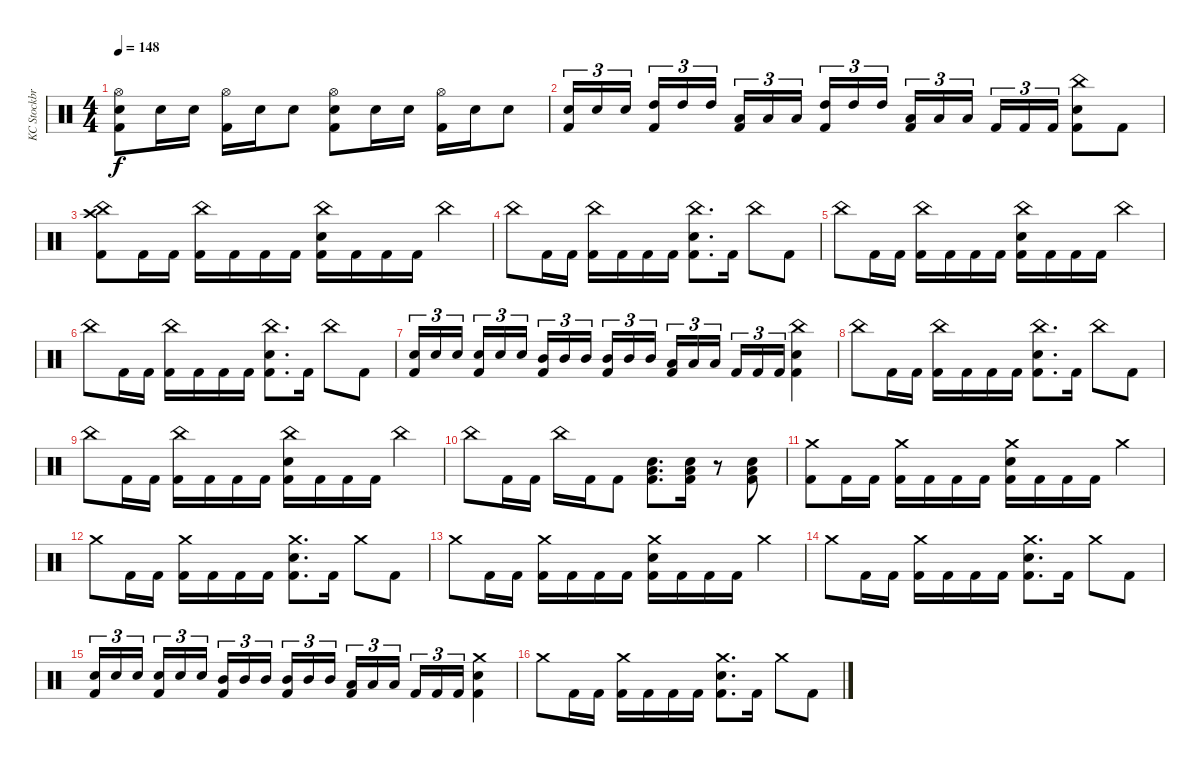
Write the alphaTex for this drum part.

\track ("KC Stockbridge" "KC Stockbr") {instrument percussion}
\staff {score}
\articulation defaults
\ts (4 4)
\tempo 148
\clef neutral
\ks c
("Hi-Hat (open)" "Electric Snare (hit)" "Kick (hit) 2").8{dy f} "Electric Snare (hit)".16 "Electric Snare (hit)".16 ("Hi-Hat (open)" "Kick (hit) 2").16 "Electric Snare (hit)".16 "Electric Snare (hit)".8 ("Hi-Hat (open)" "Electric Snare (hit)" "Kick (hit) 2").8 "Electric Snare (hit)".16 "Electric Snare (hit)".16 ("Hi-Hat (open)" "Kick (hit) 2").16 "Electric Snare (hit)".16 "Electric Snare (hit)".8 |
("Electric Snare (hit)" "Kick (hit) 2").16{tu (3 2)} "Electric Snare (hit)".16{tu (3 2)} "Electric Snare (hit)".16{tu (3 2) beam splitsecondary} ("High Tom (hit)" "Kick (hit) 2").16{tu (3 2)} "High Tom (hit)".16{tu (3 2)} "High Tom (hit)".16{tu (3 2)} ("Low Tom (hit)" "Kick (hit) 2").16{tu (3 2)} "Low Tom (hit)".16{tu (3 2)} "Low Tom (hit)".16{tu (3 2) beam splitsecondary} ("High Tom (hit)" "Kick (hit) 2").16{tu (3 2)} "High Tom (hit)".16{tu (3 2)} "High Tom (hit)".16{tu (3 2)} ("Low Tom (hit)" "Kick (hit) 2").16{tu (3 2)} "Low Tom (hit)".16{tu (3 2)} "Low Tom (hit)".16{tu (3 2) beam splitsecondary} "Kick (hit) 2".16{tu (3 2)} "Kick (hit) 2".16{tu (3 2)} "Kick (hit) 2".16{tu (3 2)} ("China (hit)" "Electric Snare (hit)" "Kick (hit) 2").8 "Kick (hit) 2".8 |
("Crash high (hit)" "China (hit)" "Kick (hit) 2").8 "Kick (hit) 2".16 "Kick (hit) 2".16 ("China (hit)" "Kick (hit) 2").16 "Kick (hit) 2".16 "Kick (hit) 2".16 "Kick (hit) 2".16 ("China (hit)" "Electric Snare (hit)" "Kick (hit) 2").16 "Kick (hit) 2".16 "Kick (hit) 2".16 "Kick (hit) 2".16 "China (hit)".4 |
"China (hit)".8 "Kick (hit) 2".16 "Kick (hit) 2".16 ("China (hit)" "Kick (hit) 2").16 "Kick (hit) 2".16 "Kick (hit) 2".16 "Kick (hit) 2".16 ("China (hit)" "Electric Snare (hit)" "Kick (hit) 2").8{d} "Kick (hit) 2".16 "China (hit)".8 "Kick (hit) 2".8 |
"China (hit)".8 "Kick (hit) 2".16 "Kick (hit) 2".16 ("China (hit)" "Kick (hit) 2").16 "Kick (hit) 2".16 "Kick (hit) 2".16 "Kick (hit) 2".16 ("China (hit)" "Electric Snare (hit)" "Kick (hit) 2").16 "Kick (hit) 2".16 "Kick (hit) 2".16 "Kick (hit) 2".16 "China (hit)".4 |
"China (hit)".8 "Kick (hit) 2".16 "Kick (hit) 2".16 ("China (hit)" "Kick (hit) 2").16 "Kick (hit) 2".16 "Kick (hit) 2".16 "Kick (hit) 2".16 ("China (hit)" "Electric Snare (hit)" "Kick (hit) 2").8{d} "Kick (hit) 2".16 "China (hit)".8 "Kick (hit) 2".8 |
("Electric Snare (hit)" "Kick (hit) 2").16{tu (3 2)} "Electric Snare (hit)".16{tu (3 2)} "Electric Snare (hit)".16{tu (3 2) beam splitsecondary} ("Electric Snare (hit)" "Kick (hit) 2").16{tu (3 2)} "Electric Snare (hit)".16{tu (3 2)} "Electric Snare (hit)".16{tu (3 2)} ("Mid Tom (hit)" "Kick (hit) 2").16{tu (3 2)} "Mid Tom (hit)".16{tu (3 2)} "Mid Tom (hit)".16{tu (3 2) beam splitsecondary} ("Mid Tom (hit)" "Kick (hit) 2").16{tu (3 2)} "Mid Tom (hit)".16{tu (3 2)} "Mid Tom (hit)".16{tu (3 2)} ("Low Tom (hit)" "Kick (hit) 2").16{tu (3 2)} "Low Tom (hit)".16{tu (3 2)} "Low Tom (hit)".16{tu (3 2) beam splitsecondary} "Kick (hit) 2".16{tu (3 2)} "Kick (hit) 2".16{tu (3 2)} "Kick (hit) 2".16{tu (3 2)} ("China (hit)" "Electric Snare (hit)" "Kick (hit) 2").4 |
"China (hit)".8 "Kick (hit) 2".16 "Kick (hit) 2".16 ("China (hit)" "Kick (hit) 2").16 "Kick (hit) 2".16 "Kick (hit) 2".16 "Kick (hit) 2".16 ("China (hit)" "Electric Snare (hit)" "Kick (hit) 2").8{d} "Kick (hit) 2".16 "China (hit)".8 "Kick (hit) 2".8 |
"China (hit)".8 "Kick (hit) 2".16 "Kick (hit) 2".16 ("China (hit)" "Kick (hit) 2").16 "Kick (hit) 2".16 "Kick (hit) 2".16 "Kick (hit) 2".16 ("China (hit)" "Electric Snare (hit)" "Kick (hit) 2").16 "Kick (hit) 2".16 "Kick (hit) 2".16 "Kick (hit) 2".16 "China (hit)".4 |
"China (hit)".8 "Kick (hit) 2".16 "Kick (hit) 2".16 "China (hit)".16 "Kick (hit) 2".16 "Kick (hit) 2".8 ("Low Tom (hit)" "Electric Snare (hit)" "Kick (hit) 2").8{d} ("Low Tom (hit)" "Electric Snare (hit)" "Kick (hit) 2").16 r.8 ("Low Tom (hit)" "Electric Snare (hit)" "Kick (hit) 2").8 |
("Crash medium (hit)" "Kick (hit) 2").8 "Kick (hit) 2".16 "Kick (hit) 2".16 ("Crash medium (hit)" "Kick (hit) 2").16 "Kick (hit) 2".16 "Kick (hit) 2".16 "Kick (hit) 2".16 ("Crash medium (hit)" "Electric Snare (hit)" "Kick (hit) 2").16 "Kick (hit) 2".16 "Kick (hit) 2".16 "Kick (hit) 2".16 "Crash medium (hit)".4 |
"Crash medium (hit)".8 "Kick (hit) 2".16 "Kick (hit) 2".16 ("Crash medium (hit)" "Kick (hit) 2").16 "Kick (hit) 2".16 "Kick (hit) 2".16 "Kick (hit) 2".16 ("Crash medium (hit)" "Electric Snare (hit)" "Kick (hit) 2").8{d} "Kick (hit) 2".16 "Crash medium (hit)".8 "Kick (hit) 2".8 |
"Crash medium (hit)".8 "Kick (hit) 2".16 "Kick (hit) 2".16 ("Crash medium (hit)" "Kick (hit) 2").16 "Kick (hit) 2".16 "Kick (hit) 2".16 "Kick (hit) 2".16 ("Crash medium (hit)" "Electric Snare (hit)" "Kick (hit) 2").16 "Kick (hit) 2".16 "Kick (hit) 2".16 "Kick (hit) 2".16 "Crash medium (hit)".4 |
"Crash medium (hit)".8 "Kick (hit) 2".16 "Kick (hit) 2".16 ("Crash medium (hit)" "Kick (hit) 2").16 "Kick (hit) 2".16 "Kick (hit) 2".16 "Kick (hit) 2".16 ("Crash medium (hit)" "Electric Snare (hit)" "Kick (hit) 2").8{d} "Kick (hit) 2".16 "Crash medium (hit)".8 "Kick (hit) 2".8 |
("Electric Snare (hit)" "Kick (hit) 2").16{tu (3 2)} "Electric Snare (hit)".16{tu (3 2)} "Electric Snare (hit)".16{tu (3 2) beam splitsecondary} ("Electric Snare (hit)" "Kick (hit) 2").16{tu (3 2)} "Electric Snare (hit)".16{tu (3 2)} "Electric Snare (hit)".16{tu (3 2)} ("Mid Tom (hit)" "Kick (hit) 2").16{tu (3 2)} "Mid Tom (hit)".16{tu (3 2)} "Mid Tom (hit)".16{tu (3 2) beam splitsecondary} ("Mid Tom (hit)" "Kick (hit) 2").16{tu (3 2)} "Mid Tom (hit)".16{tu (3 2)} "Mid Tom (hit)".16{tu (3 2)} ("Low Tom (hit)" "Kick (hit) 2").16{tu (3 2)} "Low Tom (hit)".16{tu (3 2)} "Low Tom (hit)".16{tu (3 2) beam splitsecondary} "Kick (hit) 2".16{tu (3 2)} "Kick (hit) 2".16{tu (3 2)} "Kick (hit) 2".16{tu (3 2)} ("Crash medium (hit)" "Electric Snare (hit)" "Kick (hit) 2").4 |
"Crash medium (hit)".8 "Kick (hit) 2".16 "Kick (hit) 2".16 ("Crash medium (hit)" "Kick (hit) 2").16 "Kick (hit) 2".16 "Kick (hit) 2".16 "Kick (hit) 2".16 ("Crash medium (hit)" "Electric Snare (hit)" "Kick (hit) 2").8{d} "Kick (hit) 2".16 "Crash medium (hit)".8 "Kick (hit) 2".8
